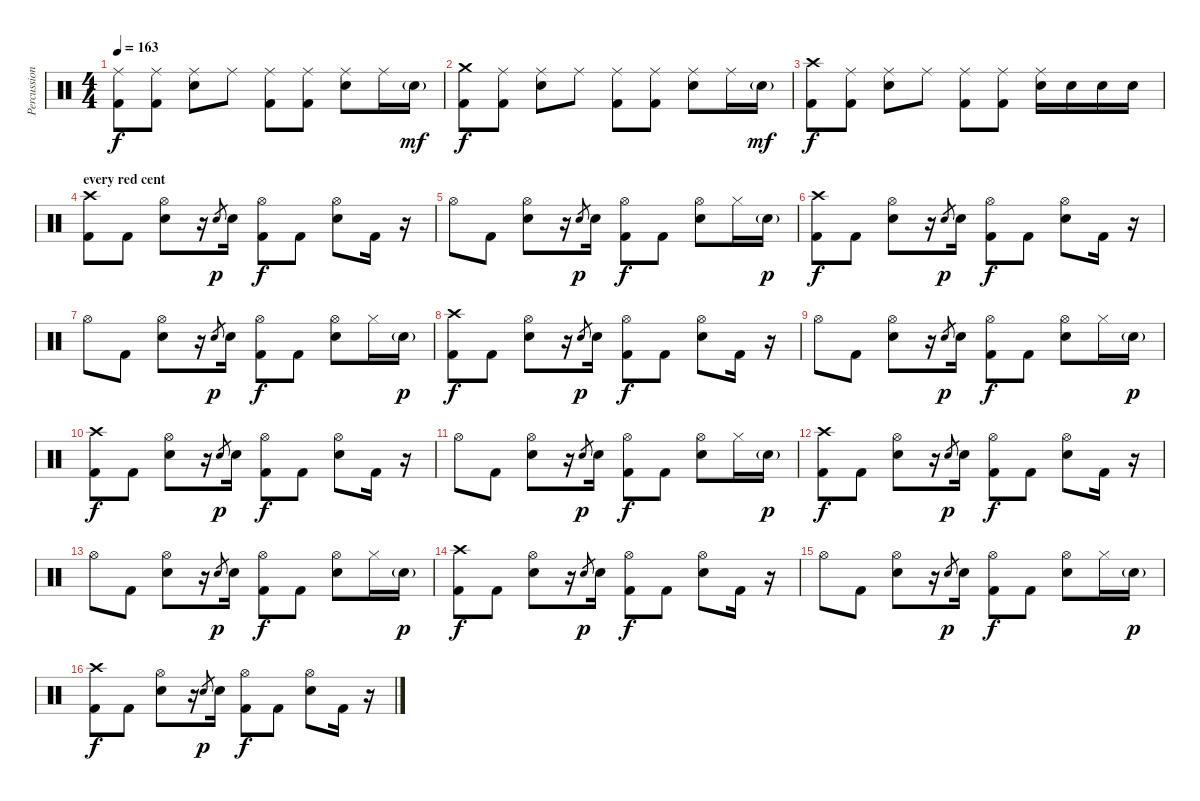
\track ("Percussion" "Percussion") {instrument percussion}
\staff {score}
\articulation defaults
\ts (4 4)
\tempo 163
\clef neutral
\ks c
("Ride (middle)" "Kick (hit) 2").8{dy f} ("Ride (middle)" "Kick (hit) 2").8 ("Ride (middle)" "Electric Snare (hit)").8 "Ride (middle)".8 ("Ride (middle)" "Kick (hit) 2").8 ("Ride (middle)" "Kick (hit) 2").8 ("Ride (middle)" "Electric Snare (hit)").8 "Ride (middle)".16 "Electric Snare (hit)"{g}.16{dy mf} |
("Crash medium (hit)" "Kick (hit) 2").8{dy f} ("Ride (middle)" "Kick (hit) 2").8 ("Ride (middle)" "Electric Snare (hit)").8 "Ride (middle)".8 ("Ride (middle)" "Kick (hit) 2").8 ("Ride (middle)" "Kick (hit) 2").8 ("Ride (middle)" "Electric Snare (hit)").8 "Ride (middle)".16 "Electric Snare (hit)"{g}.16{dy mf} |
("Crash high (hit)" "Kick (hit) 2").8{dy f} ("Ride (middle)" "Kick (hit) 2").8 ("Ride (middle)" "Electric Snare (hit)").8 "Ride (middle)".8 ("Ride (middle)" "Kick (hit) 2").8 ("Ride (middle)" "Kick (hit) 2").8 ("Ride (middle)" "Electric Snare (hit)").16 "Electric Snare (hit)".16 "Electric Snare (hit)".16 "Electric Snare (hit)".16 |
\section ("" "every red cent")
("Crash high (hit)" "Kick (hit) 2").8 "Kick (hit) 2".8 ("Hi-Hat (open)" "Electric Snare (hit)").8 r.16 "Electric Snare (hit)".8{gr dy p} "Electric Snare (hit)".16 ("Hi-Hat (open)" "Kick (hit) 2").8{dy f} "Kick (hit) 2".8 ("Hi-Hat (open)" "Electric Snare (hit)").8 "Kick (hit) 2".16 r.16 |
"Hi-Hat (open)".8 "Kick (hit) 2".8 ("Hi-Hat (open)" "Electric Snare (hit)").8 r.16 "Electric Snare (hit)".8{gr dy p} "Electric Snare (hit)".16 ("Hi-Hat (open)" "Kick (hit) 2").8{dy f} "Kick (hit) 2".8 ("Hi-Hat (open)" "Electric Snare (hit)").8 "Hi-Hat (closed)".16 "Electric Snare (hit)"{g}.16{dy p} |
("Crash high (hit)" "Kick (hit) 2").8{dy f} "Kick (hit) 2".8 ("Hi-Hat (open)" "Electric Snare (hit)").8 r.16 "Electric Snare (hit)".8{gr dy p} "Electric Snare (hit)".16 ("Hi-Hat (open)" "Kick (hit) 2").8{dy f} "Kick (hit) 2".8 ("Hi-Hat (open)" "Electric Snare (hit)").8 "Kick (hit) 2".16 r.16 |
"Hi-Hat (open)".8 "Kick (hit) 2".8 ("Hi-Hat (open)" "Electric Snare (hit)").8 r.16 "Electric Snare (hit)".8{gr dy p} "Electric Snare (hit)".16 ("Hi-Hat (open)" "Kick (hit) 2").8{dy f} "Kick (hit) 2".8 ("Hi-Hat (open)" "Electric Snare (hit)").8 "Hi-Hat (closed)".16 "Electric Snare (hit)"{g}.16{dy p} |
("Crash high (hit)" "Kick (hit) 2").8{dy f} "Kick (hit) 2".8 ("Hi-Hat (open)" "Electric Snare (hit)").8 r.16 "Electric Snare (hit)".8{gr dy p} "Electric Snare (hit)".16 ("Hi-Hat (open)" "Kick (hit) 2").8{dy f} "Kick (hit) 2".8 ("Hi-Hat (open)" "Electric Snare (hit)").8 "Kick (hit) 2".16 r.16 |
"Hi-Hat (open)".8 "Kick (hit) 2".8 ("Hi-Hat (open)" "Electric Snare (hit)").8 r.16 "Electric Snare (hit)".8{gr dy p} "Electric Snare (hit)".16 ("Hi-Hat (open)" "Kick (hit) 2").8{dy f} "Kick (hit) 2".8 ("Hi-Hat (open)" "Electric Snare (hit)").8 "Hi-Hat (closed)".16 "Electric Snare (hit)"{g}.16{dy p} |
("Crash high (hit)" "Kick (hit) 2").8{dy f} "Kick (hit) 2".8 ("Hi-Hat (open)" "Electric Snare (hit)").8 r.16 "Electric Snare (hit)".8{gr dy p} "Electric Snare (hit)".16 ("Hi-Hat (open)" "Kick (hit) 2").8{dy f} "Kick (hit) 2".8 ("Hi-Hat (open)" "Electric Snare (hit)").8 "Kick (hit) 2".16 r.16 |
"Hi-Hat (open)".8 "Kick (hit) 2".8 ("Hi-Hat (open)" "Electric Snare (hit)").8 r.16 "Electric Snare (hit)".8{gr dy p} "Electric Snare (hit)".16 ("Hi-Hat (open)" "Kick (hit) 2").8{dy f} "Kick (hit) 2".8 ("Hi-Hat (open)" "Electric Snare (hit)").8 "Hi-Hat (closed)".16 "Electric Snare (hit)"{g}.16{dy p} |
("Crash high (hit)" "Kick (hit) 2").8{dy f} "Kick (hit) 2".8 ("Hi-Hat (open)" "Electric Snare (hit)").8 r.16 "Electric Snare (hit)".8{gr dy p} "Electric Snare (hit)".16 ("Hi-Hat (open)" "Kick (hit) 2").8{dy f} "Kick (hit) 2".8 ("Hi-Hat (open)" "Electric Snare (hit)").8 "Kick (hit) 2".16 r.16 |
"Hi-Hat (open)".8 "Kick (hit) 2".8 ("Hi-Hat (open)" "Electric Snare (hit)").8 r.16 "Electric Snare (hit)".8{gr dy p} "Electric Snare (hit)".16 ("Hi-Hat (open)" "Kick (hit) 2").8{dy f} "Kick (hit) 2".8 ("Hi-Hat (open)" "Electric Snare (hit)").8 "Hi-Hat (closed)".16 "Electric Snare (hit)"{g}.16{dy p} |
("Crash high (hit)" "Kick (hit) 2").8{dy f} "Kick (hit) 2".8 ("Hi-Hat (open)" "Electric Snare (hit)").8 r.16 "Electric Snare (hit)".8{gr dy p} "Electric Snare (hit)".16 ("Hi-Hat (open)" "Kick (hit) 2").8{dy f} "Kick (hit) 2".8 ("Hi-Hat (open)" "Electric Snare (hit)").8 "Kick (hit) 2".16 r.16 |
"Hi-Hat (open)".8 "Kick (hit) 2".8 ("Hi-Hat (open)" "Electric Snare (hit)").8 r.16 "Electric Snare (hit)".8{gr dy p} "Electric Snare (hit)".16 ("Hi-Hat (open)" "Kick (hit) 2").8{dy f} "Kick (hit) 2".8 ("Hi-Hat (open)" "Electric Snare (hit)").8 "Hi-Hat (closed)".16 "Electric Snare (hit)"{g}.16{dy p} |
("Crash high (hit)" "Kick (hit) 2").8{dy f} "Kick (hit) 2".8 ("Hi-Hat (open)" "Electric Snare (hit)").8 r.16 "Electric Snare (hit)".8{gr dy p} "Electric Snare (hit)".16 ("Hi-Hat (open)" "Kick (hit) 2").8{dy f} "Kick (hit) 2".8 ("Hi-Hat (open)" "Electric Snare (hit)").8 "Kick (hit) 2".16 r.16
